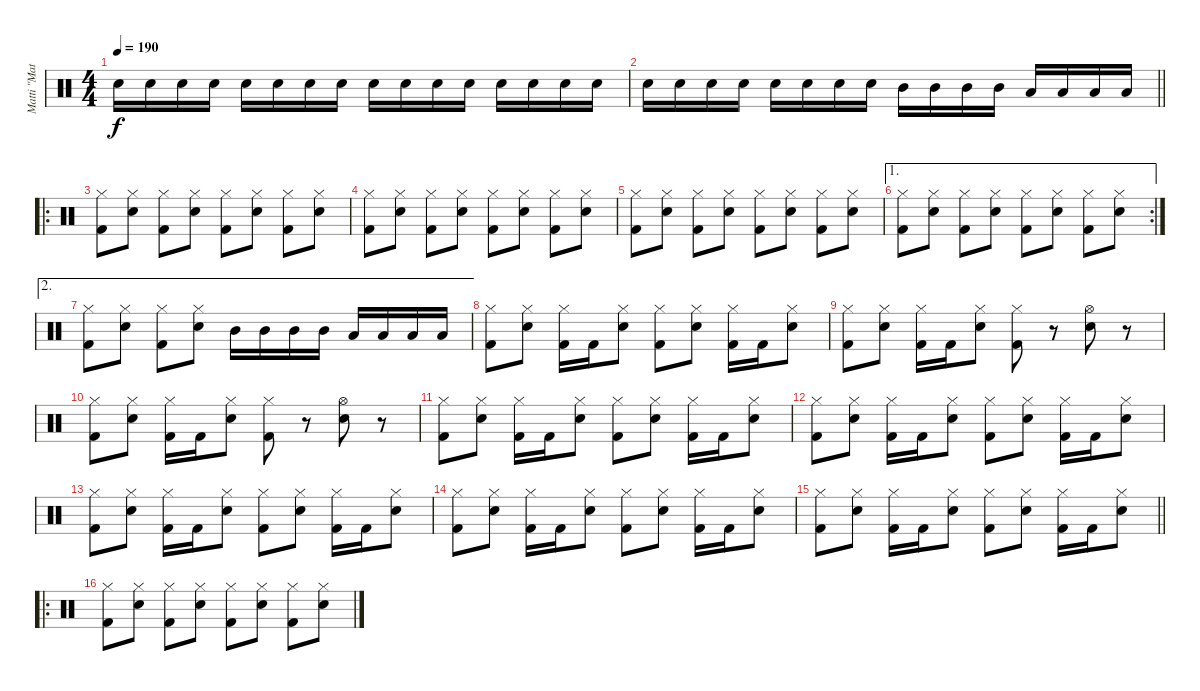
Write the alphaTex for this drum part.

\track ("Matti \"Matson\" Johansson" "Matti \"Mat") {instrument percussion}
\staff {score}
\articulation defaults
\ts (4 4)
\tempo 190
\clef neutral
\ks c "Snare (hit) 2".16{dy f} "Snare (hit) 2".16 "Snare (hit) 2".16 "Snare (hit) 2".16 "Snare (hit) 2".16 "Snare (hit) 2".16 "Snare (hit) 2".16 "Snare (hit) 2".16 "Snare (hit) 2".16 "Snare (hit) 2".16 "Snare (hit) 2".16 "Snare (hit) 2".16 "Snare (hit) 2".16 "Snare (hit) 2".16 "Snare (hit) 2".16 "Snare (hit) 2".16
|
\barLineRight lightlight "Snare (hit) 2".16 "Snare (hit) 2".16 "Snare (hit) 2".16 "Snare (hit) 2".16 "Snare (hit) 2".16 "Snare (hit) 2".16 "Snare (hit) 2".16 "Snare (hit) 2".16 "Mid Tom (hit)".16 "Mid Tom (hit)".16 "Mid Tom (hit)".16 "Mid Tom (hit)".16 "Low Tom (hit)".16 "Low Tom (hit)".16 "Low Tom (hit)".16 "Low Tom (hit)".16
|
\ro
\section ("" "")
("Hi-Hat (closed)" "Kick (hit) 2").8 ("Hi-Hat (closed)" "Snare (hit) 2").8 ("Hi-Hat (closed)" "Kick (hit) 2").8 ("Hi-Hat (closed)" "Snare (hit) 2").8 ("Hi-Hat (closed)" "Kick (hit) 2").8 ("Hi-Hat (closed)" "Snare (hit) 2").8 ("Hi-Hat (closed)" "Kick (hit) 2").8 ("Hi-Hat (closed)" "Snare (hit) 2").8 |
("Hi-Hat (closed)" "Kick (hit) 2").8 ("Hi-Hat (closed)" "Snare (hit) 2").8 ("Hi-Hat (closed)" "Kick (hit) 2").8 ("Hi-Hat (closed)" "Snare (hit) 2").8 ("Hi-Hat (closed)" "Kick (hit) 2").8 ("Hi-Hat (closed)" "Snare (hit) 2").8 ("Hi-Hat (closed)" "Kick (hit) 2").8 ("Hi-Hat (closed)" "Snare (hit) 2").8 |
("Hi-Hat (closed)" "Kick (hit) 2").8 ("Hi-Hat (closed)" "Snare (hit) 2").8 ("Hi-Hat (closed)" "Kick (hit) 2").8 ("Hi-Hat (closed)" "Snare (hit) 2").8 ("Hi-Hat (closed)" "Kick (hit) 2").8 ("Hi-Hat (closed)" "Snare (hit) 2").8 ("Hi-Hat (closed)" "Kick (hit) 2").8 ("Hi-Hat (closed)" "Snare (hit) 2").8 |
\ae 1
\rc 2
("Hi-Hat (closed)" "Kick (hit) 2").8 ("Hi-Hat (closed)" "Snare (hit) 2").8 ("Hi-Hat (closed)" "Kick (hit) 2").8 ("Hi-Hat (closed)" "Snare (hit) 2").8 ("Hi-Hat (closed)" "Kick (hit) 2").8 ("Hi-Hat (closed)" "Snare (hit) 2").8 ("Hi-Hat (closed)" "Kick (hit) 2").8 ("Hi-Hat (closed)" "Snare (hit) 2").8 |
\ae 2
("Hi-Hat (closed)" "Kick (hit) 2").8 ("Hi-Hat (closed)" "Snare (hit) 2").8 ("Hi-Hat (closed)" "Kick (hit) 2").8 ("Hi-Hat (closed)" "Snare (hit) 2").8 "Mid Tom (hit)".16 "Mid Tom (hit)".16 "Mid Tom (hit)".16 "Mid Tom (hit)".16 "Low Tom (hit)".16 "Low Tom (hit)".16 "Low Tom (hit)".16 "Low Tom (hit)".16 |
("Hi-Hat (closed)" "Kick (hit) 2").8 ("Hi-Hat (closed)" "Snare (hit) 2").8 ("Hi-Hat (closed)" "Kick (hit) 2").16 "Kick (hit) 2".16 ("Hi-Hat (closed)" "Snare (hit) 2").8 ("Hi-Hat (closed)" "Kick (hit) 2").8 ("Hi-Hat (closed)" "Snare (hit) 2").8 ("Hi-Hat (closed)" "Kick (hit) 2").16 "Kick (hit) 2".16 ("Hi-Hat (closed)" "Snare (hit) 2").8 |
("Hi-Hat (closed)" "Kick (hit) 2").8 ("Hi-Hat (closed)" "Snare (hit) 2").8 ("Hi-Hat (closed)" "Kick (hit) 2").16 "Kick (hit) 2".16 ("Hi-Hat (closed)" "Snare (hit) 2").8 ("Hi-Hat (closed)" "Kick (hit) 2").8 r.8 ("Hi-Hat (open)" "Snare (hit) 2").8 r.8 |
("Hi-Hat (closed)" "Kick (hit) 2").8 ("Hi-Hat (closed)" "Snare (hit) 2").8 ("Hi-Hat (closed)" "Kick (hit) 2").16 "Kick (hit) 2".16 ("Hi-Hat (closed)" "Snare (hit) 2").8 ("Hi-Hat (closed)" "Kick (hit) 2").8 r.8 ("Hi-Hat (open)" "Snare (hit) 2").8 r.8 |
("Hi-Hat (closed)" "Kick (hit) 2").8 ("Hi-Hat (closed)" "Snare (hit) 2").8 ("Hi-Hat (closed)" "Kick (hit) 2").16 "Kick (hit) 2".16 ("Hi-Hat (closed)" "Snare (hit) 2").8 ("Hi-Hat (closed)" "Kick (hit) 2").8 ("Hi-Hat (closed)" "Snare (hit) 2").8 ("Hi-Hat (closed)" "Kick (hit) 2").16 "Kick (hit) 2".16 ("Hi-Hat (closed)" "Snare (hit) 2").8 |
("Hi-Hat (closed)" "Kick (hit) 2").8 ("Hi-Hat (closed)" "Snare (hit) 2").8 ("Hi-Hat (closed)" "Kick (hit) 2").16 "Kick (hit) 2".16 ("Hi-Hat (closed)" "Snare (hit) 2").8 ("Hi-Hat (closed)" "Kick (hit) 2").8 ("Hi-Hat (closed)" "Snare (hit) 2").8 ("Hi-Hat (closed)" "Kick (hit) 2").16 "Kick (hit) 2".16 ("Hi-Hat (closed)" "Snare (hit) 2").8 |
("Hi-Hat (closed)" "Kick (hit) 2").8 ("Hi-Hat (closed)" "Snare (hit) 2").8 ("Hi-Hat (closed)" "Kick (hit) 2").16 "Kick (hit) 2".16 ("Hi-Hat (closed)" "Snare (hit) 2").8 ("Hi-Hat (closed)" "Kick (hit) 2").8 ("Hi-Hat (closed)" "Snare (hit) 2").8 ("Hi-Hat (closed)" "Kick (hit) 2").16 "Kick (hit) 2".16 ("Hi-Hat (closed)" "Snare (hit) 2").8 |
("Hi-Hat (closed)" "Kick (hit) 2").8 ("Hi-Hat (closed)" "Snare (hit) 2").8 ("Hi-Hat (closed)" "Kick (hit) 2").16 "Kick (hit) 2".16 ("Hi-Hat (closed)" "Snare (hit) 2").8 ("Hi-Hat (closed)" "Kick (hit) 2").8 ("Hi-Hat (closed)" "Snare (hit) 2").8 ("Hi-Hat (closed)" "Kick (hit) 2").16 "Kick (hit) 2".16 ("Hi-Hat (closed)" "Snare (hit) 2").8 |
\barLineRight lightlight
("Hi-Hat (closed)" "Kick (hit) 2").8 ("Hi-Hat (closed)" "Snare (hit) 2").8 ("Hi-Hat (closed)" "Kick (hit) 2").16 "Kick (hit) 2".16 ("Hi-Hat (closed)" "Snare (hit) 2").8 ("Hi-Hat (closed)" "Kick (hit) 2").8 ("Hi-Hat (closed)" "Snare (hit) 2").8 ("Hi-Hat (closed)" "Kick (hit) 2").16 "Kick (hit) 2".16 ("Hi-Hat (closed)" "Snare (hit) 2").8 |
\ro
\section ("" "")
("Hi-Hat (closed)" "Kick (hit) 2").8 ("Hi-Hat (closed)" "Snare (hit) 2").8 ("Hi-Hat (closed)" "Kick (hit) 2").8 ("Hi-Hat (closed)" "Snare (hit) 2").8 ("Hi-Hat (closed)" "Kick (hit) 2").8 ("Hi-Hat (closed)" "Snare (hit) 2").8 ("Hi-Hat (closed)" "Kick (hit) 2").8 ("Hi-Hat (closed)" "Snare (hit) 2").8
